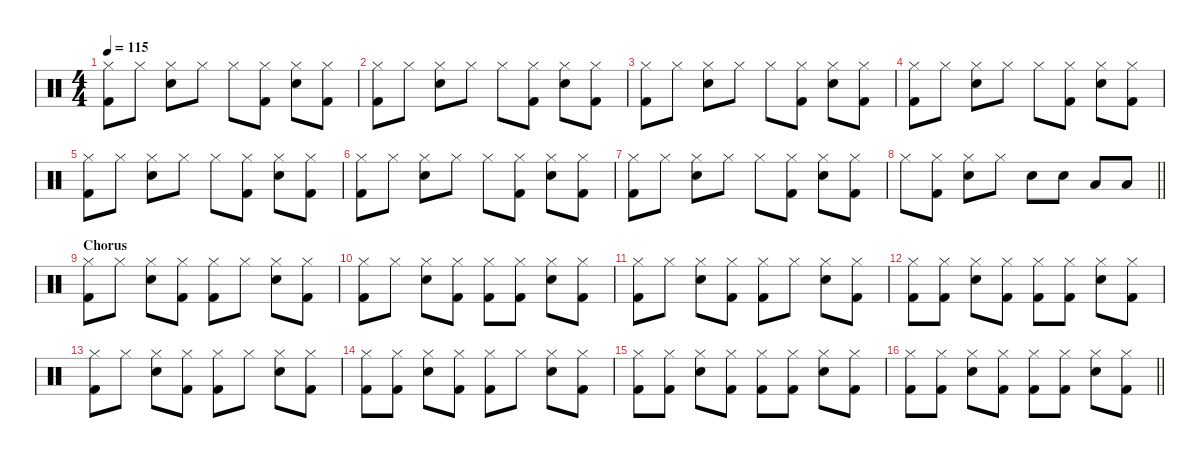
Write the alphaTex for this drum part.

\defaultSystemsLayout 4
\hideDynamics
\bracketExtendMode nobrackets
\singleTrackTrackNamePolicy hidden
\multiTrackTrackNamePolicy hidden
\otherSystemsTrackNameOrientation horizontal
\track ("Drums" "drm.") {defaultSystemsLayout 4 instrument percussion}
\staff {score}
\articulation defaults
\ts (4 4)
\tempo 115
\clef neutral
\ks c
("Hi-Hat (closed)" "Kick (hit) 2").8{dy f} "Hi-Hat (closed)".8 ("Hi-Hat (closed)" "Snare (hit) 2").8 "Hi-Hat (closed)".8 "Hi-Hat (closed)".8 ("Hi-Hat (closed)" "Kick (hit) 2").8 ("Hi-Hat (closed)" "Snare (hit) 2").8 ("Hi-Hat (closed)" "Kick (hit) 2").8 |
("Hi-Hat (closed)" "Kick (hit) 2").8 "Hi-Hat (closed)".8 ("Hi-Hat (closed)" "Snare (hit) 2").8 "Hi-Hat (closed)".8 "Hi-Hat (closed)".8 ("Hi-Hat (closed)" "Kick (hit) 2").8 ("Hi-Hat (closed)" "Snare (hit) 2").8 ("Hi-Hat (closed)" "Kick (hit) 2").8 |
("Hi-Hat (closed)" "Kick (hit) 2").8 "Hi-Hat (closed)".8 ("Hi-Hat (closed)" "Snare (hit) 2").8 "Hi-Hat (closed)".8 "Hi-Hat (closed)".8 ("Hi-Hat (closed)" "Kick (hit) 2").8 ("Hi-Hat (closed)" "Snare (hit) 2").8 ("Hi-Hat (closed)" "Kick (hit) 2").8 |
("Hi-Hat (closed)" "Kick (hit) 2").8 "Hi-Hat (closed)".8 ("Hi-Hat (closed)" "Snare (hit) 2").8 "Hi-Hat (closed)".8 "Hi-Hat (closed)".8 ("Hi-Hat (closed)" "Kick (hit) 2").8 ("Hi-Hat (closed)" "Snare (hit) 2").8 ("Hi-Hat (closed)" "Kick (hit) 2").8 |
("Hi-Hat (closed)" "Kick (hit) 2").8 "Hi-Hat (closed)".8 ("Hi-Hat (closed)" "Snare (hit) 2").8 "Hi-Hat (closed)".8 "Hi-Hat (closed)".8 ("Hi-Hat (closed)" "Kick (hit) 2").8 ("Hi-Hat (closed)" "Snare (hit) 2").8 ("Hi-Hat (closed)" "Kick (hit) 2").8 |
("Hi-Hat (closed)" "Kick (hit) 2").8 "Hi-Hat (closed)".8 ("Hi-Hat (closed)" "Snare (hit) 2").8 "Hi-Hat (closed)".8 "Hi-Hat (closed)".8 ("Hi-Hat (closed)" "Kick (hit) 2").8 ("Hi-Hat (closed)" "Snare (hit) 2").8 ("Hi-Hat (closed)" "Kick (hit) 2").8 |
("Hi-Hat (closed)" "Kick (hit) 2").8 "Hi-Hat (closed)".8 ("Hi-Hat (closed)" "Snare (hit) 2").8 "Hi-Hat (closed)".8 "Hi-Hat (closed)".8 ("Hi-Hat (closed)" "Kick (hit) 2").8 ("Hi-Hat (closed)" "Snare (hit) 2").8 ("Hi-Hat (closed)" "Kick (hit) 2").8 |
\barLineRight lightlight "Hi-Hat (closed)".8
("Hi-Hat (closed)" "Kick (hit) 2").8 ("Hi-Hat (closed)" "Snare (hit) 2").8 "Hi-Hat (closed)".8 "Snare (hit) 2".8 "Snare (hit) 2".8 "Low Tom (hit)".8 "Low Tom (hit)".8 |
\section ("" "Chorus")
("Hi-Hat (closed)" "Kick (hit) 2").8 "Hi-Hat (closed)".8 ("Hi-Hat (closed)" "Snare (hit) 2").8 ("Hi-Hat (closed)" "Kick (hit) 2").8 ("Hi-Hat (closed)" "Kick (hit) 2").8 "Hi-Hat (closed)".8 ("Hi-Hat (closed)" "Snare (hit) 2").8 ("Hi-Hat (closed)" "Kick (hit) 2").8 |
("Hi-Hat (closed)" "Kick (hit) 2").8 "Hi-Hat (closed)".8 ("Hi-Hat (closed)" "Snare (hit) 2").8 ("Hi-Hat (closed)" "Kick (hit) 2").8 ("Hi-Hat (closed)" "Kick (hit) 2").8 ("Hi-Hat (closed)" "Kick (hit) 2").8 ("Hi-Hat (closed)" "Snare (hit) 2").8 ("Hi-Hat (closed)" "Kick (hit) 2").8 |
("Hi-Hat (closed)" "Kick (hit) 2").8 "Hi-Hat (closed)".8 ("Hi-Hat (closed)" "Snare (hit) 2").8 ("Hi-Hat (closed)" "Kick (hit) 2").8 ("Hi-Hat (closed)" "Kick (hit) 2").8 "Hi-Hat (closed)".8 ("Hi-Hat (closed)" "Snare (hit) 2").8 ("Hi-Hat (closed)" "Kick (hit) 2").8 |
("Hi-Hat (closed)" "Kick (hit) 2").8 ("Hi-Hat (closed)" "Kick (hit) 2").8 ("Hi-Hat (closed)" "Snare (hit) 2").8 ("Hi-Hat (closed)" "Kick (hit) 2").8 ("Hi-Hat (closed)" "Kick (hit) 2").8 ("Hi-Hat (closed)" "Kick (hit) 2").8 ("Hi-Hat (closed)" "Snare (hit) 2").8 ("Hi-Hat (closed)" "Kick (hit) 2").8 |
("Hi-Hat (closed)" "Kick (hit) 2").8 "Hi-Hat (closed)".8 ("Hi-Hat (closed)" "Snare (hit) 2").8 ("Hi-Hat (closed)" "Kick (hit) 2").8 ("Hi-Hat (closed)" "Kick (hit) 2").8 "Hi-Hat (closed)".8 ("Hi-Hat (closed)" "Snare (hit) 2").8 ("Hi-Hat (closed)" "Kick (hit) 2").8 |
("Hi-Hat (closed)" "Kick (hit) 2").8 ("Hi-Hat (closed)" "Kick (hit) 2").8 ("Hi-Hat (closed)" "Snare (hit) 2").8 ("Hi-Hat (closed)" "Kick (hit) 2").8 ("Hi-Hat (closed)" "Kick (hit) 2").8 "Hi-Hat (closed)".8 ("Hi-Hat (closed)" "Snare (hit) 2").8 ("Hi-Hat (closed)" "Kick (hit) 2").8 |
("Hi-Hat (closed)" "Kick (hit) 2").8 ("Hi-Hat (closed)" "Kick (hit) 2").8 ("Hi-Hat (closed)" "Snare (hit) 2").8 ("Hi-Hat (closed)" "Kick (hit) 2").8 ("Hi-Hat (closed)" "Kick (hit) 2").8 ("Hi-Hat (closed)" "Kick (hit) 2").8 ("Hi-Hat (closed)" "Snare (hit) 2").8 ("Hi-Hat (closed)" "Kick (hit) 2").8 |
\barLineRight lightlight
("Hi-Hat (closed)" "Kick (hit) 2").8 ("Hi-Hat (closed)" "Kick (hit) 2").8 ("Hi-Hat (closed)" "Snare (hit) 2").8 ("Hi-Hat (closed)" "Kick (hit) 2").8 ("Hi-Hat (closed)" "Kick (hit) 2").8 ("Hi-Hat (closed)" "Kick (hit) 2").8 ("Hi-Hat (closed)" "Snare (hit) 2").8 ("Hi-Hat (closed)" "Kick (hit) 2").8
